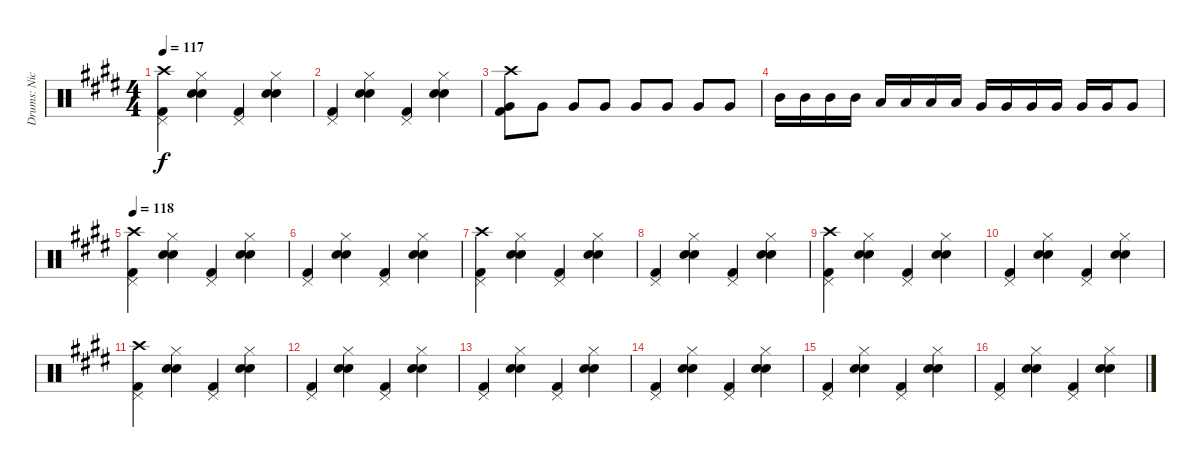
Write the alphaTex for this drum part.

\track ("Drums: Nick" "Drums: Nic") {instrument percussion}
\staff {score}
\articulation defaults
\ts (4 4)
\tempo 117
\clef neutral
\ks e
("Crash high (hit)" "Pedal Hi-Hat (hit)" "Kick (hit) 2").4{dy f} ("Hi-Hat (closed)" "Electric Snare (hit)" "Hand Clap (hit)").4 ("Pedal Hi-Hat (hit)" "Kick (hit) 2").4 ("Hi-Hat (closed)" "Electric Snare (hit)" "Hand Clap (hit)").4 |
("Pedal Hi-Hat (hit)" "Kick (hit) 2").4 ("Hi-Hat (closed)" "Electric Snare (hit)" "Hand Clap (hit)").4 ("Pedal Hi-Hat (hit)" "Kick (hit) 2").4 ("Hi-Hat (closed)" "Electric Snare (hit)" "Hand Clap (hit)").4 |
("Crash high (hit)" "Kick (hit) 2" "Very Low Tom (hit)").8 "Very Low Tom (hit)".8 "Very Low Tom (hit)".8 "Very Low Tom (hit)".8 "Very Low Tom (hit)".8 "Very Low Tom (hit)".8 "Very Low Tom (hit)".8 "Very Low Tom (hit)".8 |
"Mid Tom (hit)".16 "Mid Tom (hit)".16 "Mid Tom (hit)".16 "Mid Tom (hit)".16 "Low Tom (hit)".16 "Low Tom (hit)".16 "Low Tom (hit)".16 "Low Tom (hit)".16 "Very Low Tom (hit)".16 "Very Low Tom (hit)".16 "Very Low Tom (hit)".16 "Very Low Tom (hit)".16 "Very Low Tom (hit)".16 "Very Low Tom (hit)".16 "Very Low Tom (hit)".8 |
\tempo 118
("Crash high (hit)" "Pedal Hi-Hat (hit)" "Kick (hit) 2").4 ("Hi-Hat (closed)" "Electric Snare (hit)" "Hand Clap (hit)").4 ("Pedal Hi-Hat (hit)" "Kick (hit) 2").4 ("Hi-Hat (closed)" "Electric Snare (hit)" "Hand Clap (hit)").4 |
("Pedal Hi-Hat (hit)" "Kick (hit) 2").4 ("Hi-Hat (closed)" "Electric Snare (hit)" "Hand Clap (hit)").4 ("Pedal Hi-Hat (hit)" "Kick (hit) 2").4 ("Hi-Hat (closed)" "Electric Snare (hit)" "Hand Clap (hit)").4 |
("Crash high (hit)" "Pedal Hi-Hat (hit)" "Kick (hit) 2").4 ("Hi-Hat (closed)" "Electric Snare (hit)" "Hand Clap (hit)").4 ("Pedal Hi-Hat (hit)" "Kick (hit) 2").4 ("Hi-Hat (closed)" "Electric Snare (hit)" "Hand Clap (hit)").4 |
("Pedal Hi-Hat (hit)" "Kick (hit) 2").4 ("Hi-Hat (closed)" "Electric Snare (hit)" "Hand Clap (hit)").4 ("Pedal Hi-Hat (hit)" "Kick (hit) 2").4 ("Hi-Hat (closed)" "Electric Snare (hit)" "Hand Clap (hit)").4 |
("Crash high (hit)" "Pedal Hi-Hat (hit)" "Kick (hit) 2").4 ("Hi-Hat (closed)" "Electric Snare (hit)" "Hand Clap (hit)").4 ("Pedal Hi-Hat (hit)" "Kick (hit) 2").4 ("Hi-Hat (closed)" "Electric Snare (hit)" "Hand Clap (hit)").4 |
("Pedal Hi-Hat (hit)" "Kick (hit) 2").4 ("Hi-Hat (closed)" "Electric Snare (hit)" "Hand Clap (hit)").4 ("Pedal Hi-Hat (hit)" "Kick (hit) 2").4 ("Hi-Hat (closed)" "Electric Snare (hit)" "Hand Clap (hit)").4 |
("Crash high (hit)" "Pedal Hi-Hat (hit)" "Kick (hit) 2").4 ("Hi-Hat (closed)" "Electric Snare (hit)" "Hand Clap (hit)").4 ("Pedal Hi-Hat (hit)" "Kick (hit) 2").4 ("Hi-Hat (closed)" "Electric Snare (hit)" "Hand Clap (hit)").4 |
("Pedal Hi-Hat (hit)" "Kick (hit) 2").4 ("Hi-Hat (closed)" "Electric Snare (hit)" "Hand Clap (hit)").4 ("Pedal Hi-Hat (hit)" "Kick (hit) 2").4 ("Hi-Hat (closed)" "Electric Snare (hit)" "Hand Clap (hit)").4 |
("Pedal Hi-Hat (hit)" "Kick (hit) 2").4 ("Hi-Hat (closed)" "Electric Snare (hit)" "Hand Clap (hit)").4 ("Pedal Hi-Hat (hit)" "Kick (hit) 2").4 ("Hi-Hat (closed)" "Electric Snare (hit)" "Hand Clap (hit)").4 |
("Pedal Hi-Hat (hit)" "Kick (hit) 2").4 ("Hi-Hat (closed)" "Electric Snare (hit)" "Hand Clap (hit)").4 ("Pedal Hi-Hat (hit)" "Kick (hit) 2").4 ("Hi-Hat (closed)" "Electric Snare (hit)" "Hand Clap (hit)").4 |
("Pedal Hi-Hat (hit)" "Kick (hit) 2").4 ("Hi-Hat (closed)" "Electric Snare (hit)" "Hand Clap (hit)").4 ("Pedal Hi-Hat (hit)" "Kick (hit) 2").4 ("Hi-Hat (closed)" "Electric Snare (hit)" "Hand Clap (hit)").4 |
("Pedal Hi-Hat (hit)" "Kick (hit) 2").4 ("Hi-Hat (closed)" "Electric Snare (hit)" "Hand Clap (hit)").4 ("Pedal Hi-Hat (hit)" "Kick (hit) 2").4 ("Hi-Hat (closed)" "Electric Snare (hit)" "Hand Clap (hit)").4
